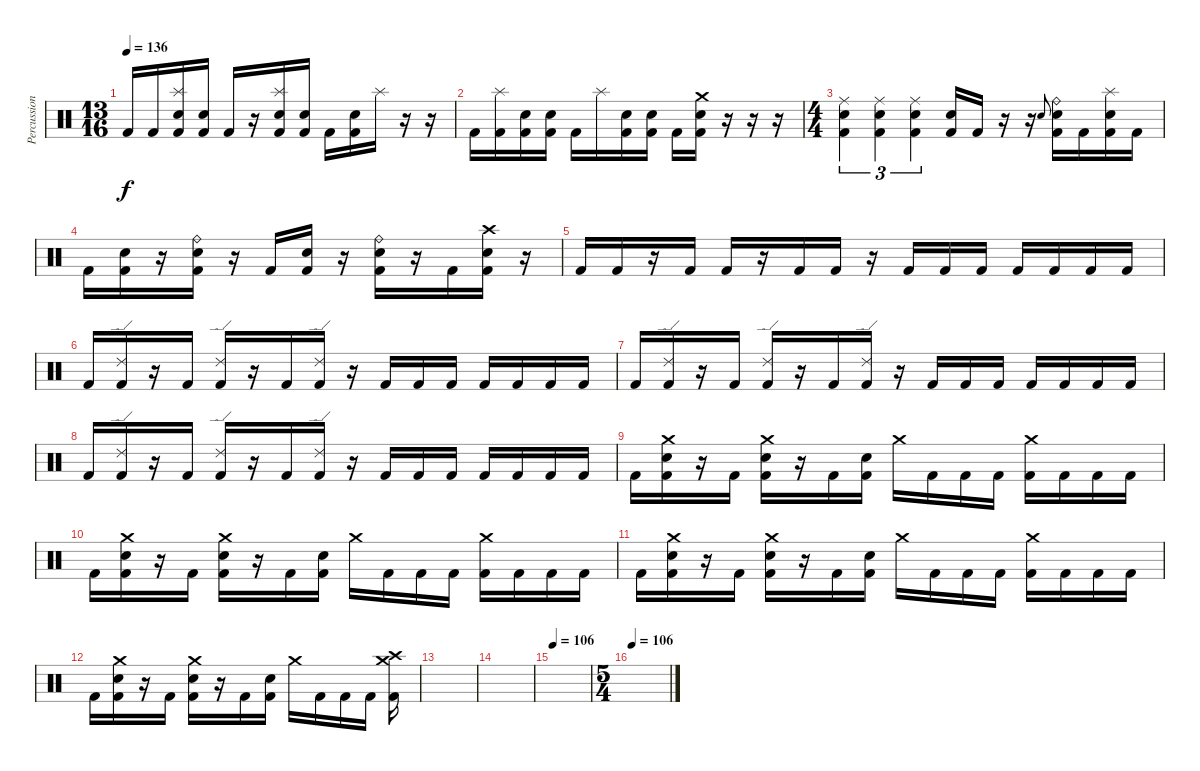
\track ("Percussion" "Percussion") {instrument percussion}
\staff {score}
\articulation defaults
\ts (13 16)
\tempo 136
\clef neutral
\ks c "Kick (hit) 2".16{dy f} "Kick (hit) 2".16
("Splash (hit)" "Electric Snare (hit)" "Kick (hit) 2").16 ("Electric Snare (hit)" "Kick (hit) 2").16 "Kick (hit) 2".16 r.16 ("Splash (hit)" "Electric Snare (hit)" "Kick (hit) 2").16 ("Electric Snare (hit)" "Kick (hit) 2").16 "Kick (hit) 2".16 ("Electric Snare (hit)" "Kick (hit) 2").16 "Splash (hit)".16 r.16 r.16 |
"Kick (hit) 2".16 ("Splash (hit)" "Kick (hit) 2").16 ("Electric Snare (hit)" "Kick (hit) 2").16 ("Electric Snare (hit)" "Kick (hit) 2").16 "Kick (hit) 2".16 "Splash (hit)".16 ("Electric Snare (hit)" "Kick (hit) 2").16 ("Electric Snare (hit)" "Kick (hit) 2").16 "Kick (hit) 2".16 ("Crash medium (hit)" "Electric Snare (hit)" "Kick (hit) 2").16 r.16 r.16 r.16 |
\ts (4 4)
("Ride (middle)" "Electric Snare (hit)" "Kick (hit) 2").4{tu (3 2)} ("Ride (middle)" "Electric Snare (hit)" "Kick (hit) 2").4{tu (3 2)} ("Ride (middle)" "Electric Snare (hit)" "Kick (hit) 2").4{tu (3 2)} ("Electric Snare (hit)" "Kick (hit) 2").16 "Kick (hit) 2".16 r.16 r.16 "Electric Snare (hit)".8{gr onbeat} ("Ride (bell)" "Electric Snare (hit)" "Kick (hit) 2").16 "Kick (hit) 2".16 ("Splash (hit)" "Electric Snare (hit)" "Kick (hit) 2").16 "Kick (hit) 2".16 |
"Kick (hit) 2".16 ("Electric Snare (hit)" "Kick (hit) 2").16 r.16 ("Ride (bell)" "Electric Snare (hit)" "Kick (hit) 2").16 r.16 "Kick (hit) 2".16 ("Electric Snare (hit)" "Kick (hit) 2").16 r.16 ("Ride (bell)" "Electric Snare (hit)" "Kick (hit) 2").16 r.16 "Kick (hit) 2".16 ("Crash high (hit)" "Electric Snare (hit)" "Kick (hit) 2").16 r.16 |
"Kick (hit) 2".16 "Kick (hit) 2".16 r.16 "Kick (hit) 2".16 "Kick (hit) 2".16 r.16 "Kick (hit) 2".16 "Kick (hit) 2".16 r.16 "Kick (hit) 2".16 "Kick (hit) 2".16 "Kick (hit) 2".16 "Kick (hit) 2".16 "Kick (hit) 2".16 "Kick (hit) 2".16 "Kick (hit) 2".16 |
"Kick (hit) 2".16 ("Ride (edge) 2" "Kick (hit) 2").16 r.16 "Kick (hit) 2".16 ("Ride (edge) 2" "Kick (hit) 2").16 r.16 "Kick (hit) 2".16 ("Ride (edge) 2" "Kick (hit) 2").16 r.16 "Kick (hit) 2".16 "Kick (hit) 2".16 "Kick (hit) 2".16 "Kick (hit) 2".16 "Kick (hit) 2".16 "Kick (hit) 2".16 "Kick (hit) 2".16 |
"Kick (hit) 2".16 ("Ride (edge) 2" "Kick (hit) 2").16 r.16 "Kick (hit) 2".16 ("Ride (edge) 2" "Kick (hit) 2").16 r.16 "Kick (hit) 2".16 ("Ride (edge) 2" "Kick (hit) 2").16 r.16 "Kick (hit) 2".16 "Kick (hit) 2".16 "Kick (hit) 2".16 "Kick (hit) 2".16 "Kick (hit) 2".16 "Kick (hit) 2".16 "Kick (hit) 2".16 |
"Kick (hit) 2".16 ("Ride (edge) 2" "Kick (hit) 2").16 r.16 "Kick (hit) 2".16 ("Ride (edge) 2" "Kick (hit) 2").16 r.16 "Kick (hit) 2".16 ("Ride (edge) 2" "Kick (hit) 2").16 r.16 "Kick (hit) 2".16 "Kick (hit) 2".16 "Kick (hit) 2".16 "Kick (hit) 2".16 "Kick (hit) 2".16 "Kick (hit) 2".16 "Kick (hit) 2".16 |
"Kick (hit) 2".16 ("Crash medium (hit)" "Electric Snare (hit)" "Kick (hit) 2").16 r.16 "Kick (hit) 2".16 ("Crash medium (hit)" "Electric Snare (hit)" "Kick (hit) 2").16 r.16 "Kick (hit) 2".16 ("Electric Snare (hit)" "Kick (hit) 2").16 "Crash medium (hit)".16 "Kick (hit) 2".16 "Kick (hit) 2".16 "Kick (hit) 2".16 ("Crash medium (hit)" "Kick (hit) 2").16 "Kick (hit) 2".16 "Kick (hit) 2".16 "Kick (hit) 2".16 |
"Kick (hit) 2".16 ("Crash medium (hit)" "Electric Snare (hit)" "Kick (hit) 2").16 r.16 "Kick (hit) 2".16 ("Crash medium (hit)" "Electric Snare (hit)" "Kick (hit) 2").16 r.16 "Kick (hit) 2".16 ("Electric Snare (hit)" "Kick (hit) 2").16 "Crash medium (hit)".16 "Kick (hit) 2".16 "Kick (hit) 2".16 "Kick (hit) 2".16 ("Crash medium (hit)" "Kick (hit) 2").16 "Kick (hit) 2".16 "Kick (hit) 2".16 "Kick (hit) 2".16 |
"Kick (hit) 2".16 ("Crash medium (hit)" "Electric Snare (hit)" "Kick (hit) 2").16 r.16 "Kick (hit) 2".16 ("Crash medium (hit)" "Electric Snare (hit)" "Kick (hit) 2").16 r.16 "Kick (hit) 2".16 ("Electric Snare (hit)" "Kick (hit) 2").16 "Crash medium (hit)".16 "Kick (hit) 2".16 "Kick (hit) 2".16 "Kick (hit) 2".16 ("Crash medium (hit)" "Kick (hit) 2").16 "Kick (hit) 2".16 "Kick (hit) 2".16 "Kick (hit) 2".16 |
"Kick (hit) 2".16 ("Crash medium (hit)" "Electric Snare (hit)" "Kick (hit) 2").16 r.16 "Kick (hit) 2".16 ("Crash medium (hit)" "Electric Snare (hit)" "Kick (hit) 2").16 r.16 "Kick (hit) 2".16 ("Electric Snare (hit)" "Kick (hit) 2").16 "Crash medium (hit)".16 "Kick (hit) 2".16 "Kick (hit) 2".16 "Kick (hit) 2".16 ("Crash medium (hit)" "Crash high (hit)" "Kick (hit) 2").16 |
|
|
\tempo 106
|
\ts (5 4)
\tempo 106
